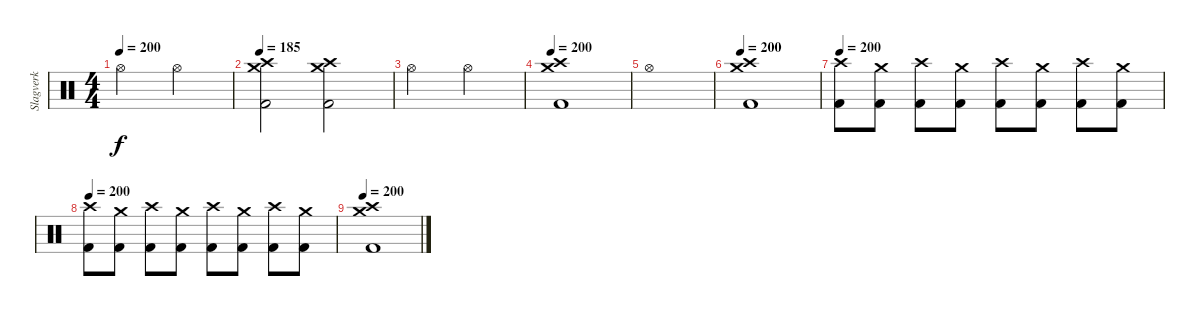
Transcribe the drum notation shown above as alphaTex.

\track ("Slagverk" "Slagverk") {instrument percussion}
\staff {score}
\articulation defaults
\ts (4 4)
\tempo 200
\clef neutral
\ks c "Hi-Hat (open)".2{dy f} "Hi-Hat (open)".2
|
\tempo 185
("Crash high (hit)" "Crash medium (hit)" "Kick (hit) 2").2 ("Crash high (hit)" "Crash medium (hit)" "Kick (hit) 2").2 |
"Hi-Hat (open)".2 "Hi-Hat (open)".2 |
\tempo 200
("Crash high (hit)" "Crash medium (hit)" "Kick (hit) 2").1 |
"Hi-Hat (open)".1 |
\tempo 200
("Crash high (hit)" "Crash medium (hit)" "Kick (hit) 2").1 |
\tempo 200
("Crash high (hit)" "Kick (hit) 2").8 ("Crash medium (hit)" "Kick (hit) 2").8 ("Crash high (hit)" "Kick (hit) 2").8 ("Crash medium (hit)" "Kick (hit) 2").8 ("Crash high (hit)" "Kick (hit) 2").8 ("Crash medium (hit)" "Kick (hit) 2").8 ("Crash high (hit)" "Kick (hit) 2").8 ("Crash medium (hit)" "Kick (hit) 2").8 |
\tempo 200
("Crash high (hit)" "Kick (hit) 2").8 ("Crash medium (hit)" "Kick (hit) 2").8 ("Crash high (hit)" "Kick (hit) 2").8 ("Crash medium (hit)" "Kick (hit) 2").8 ("Crash high (hit)" "Kick (hit) 2").8 ("Crash medium (hit)" "Kick (hit) 2").8 ("Crash high (hit)" "Kick (hit) 2").8 ("Crash medium (hit)" "Kick (hit) 2").8 |
\tempo 200
("Crash high (hit)" "Crash medium (hit)" "Kick (hit) 2").1
